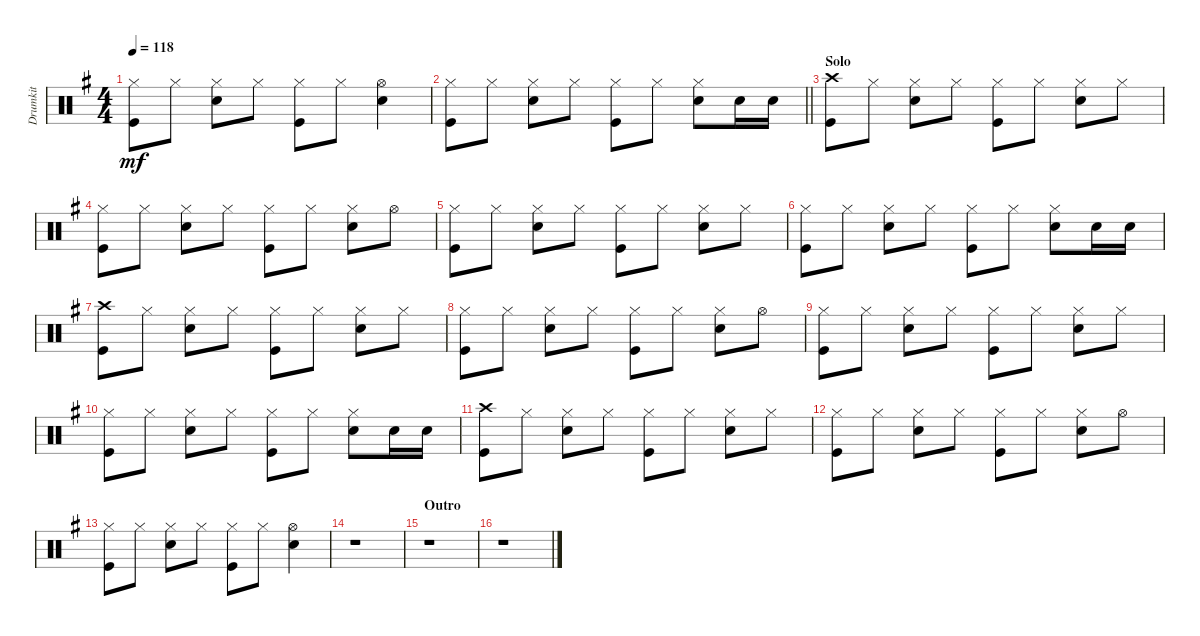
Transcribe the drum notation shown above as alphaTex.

\track ("Drumkit" "Drumkit") {instrument percussion}
\staff {score}
\articulation defaults
\ts (4 4)
\tempo 118
\clef neutral
\ks g
("Hi-Hat (closed)" "Kick (hit)").8{dy mf} "Hi-Hat (closed)".8 ("Hi-Hat (closed)" "Snare (hit) 2").8 "Hi-Hat (closed)".8 ("Hi-Hat (closed)" "Kick (hit)").8 "Hi-Hat (closed)".8 ("Hi-Hat (open)" "Snare (hit) 2").4 |
\barLineRight lightlight
("Hi-Hat (closed)" "Kick (hit)").8 "Hi-Hat (closed)".8 ("Hi-Hat (closed)" "Snare (hit) 2").8 "Hi-Hat (closed)".8 ("Hi-Hat (closed)" "Kick (hit)").8 "Hi-Hat (closed)".8 ("Hi-Hat (closed)" "Snare (hit) 2").8 "Snare (hit) 2".16 "Snare (hit) 2".16 |
\section ("" "Solo")
("Crash high (hit)" "Kick (hit)").8 "Hi-Hat (closed)".8 ("Hi-Hat (closed)" "Snare (hit) 2").8 "Hi-Hat (closed)".8 ("Hi-Hat (closed)" "Kick (hit)").8 "Hi-Hat (closed)".8 ("Hi-Hat (closed)" "Snare (hit) 2").8 "Hi-Hat (closed)".8 |
("Hi-Hat (closed)" "Kick (hit)").8 "Hi-Hat (closed)".8 ("Hi-Hat (closed)" "Snare (hit) 2").8 "Hi-Hat (closed)".8 ("Hi-Hat (closed)" "Kick (hit)").8 "Hi-Hat (closed)".8 ("Hi-Hat (closed)" "Snare (hit) 2").8 "Hi-Hat (open)".8 |
("Hi-Hat (closed)" "Kick (hit)").8 "Hi-Hat (closed)".8 ("Hi-Hat (closed)" "Snare (hit) 2").8 "Hi-Hat (closed)".8 ("Hi-Hat (closed)" "Kick (hit)").8 "Hi-Hat (closed)".8 ("Hi-Hat (closed)" "Snare (hit) 2").8 "Hi-Hat (closed)".8 |
("Hi-Hat (closed)" "Kick (hit)").8 "Hi-Hat (closed)".8 ("Hi-Hat (closed)" "Snare (hit) 2").8 "Hi-Hat (closed)".8 ("Hi-Hat (closed)" "Kick (hit)").8 "Hi-Hat (closed)".8 ("Hi-Hat (closed)" "Snare (hit) 2").8 "Snare (hit) 2".16 "Snare (hit) 2".16 |
("Crash high (hit)" "Kick (hit)").8 "Hi-Hat (closed)".8 ("Hi-Hat (closed)" "Snare (hit) 2").8 "Hi-Hat (closed)".8 ("Hi-Hat (closed)" "Kick (hit)").8 "Hi-Hat (closed)".8 ("Hi-Hat (closed)" "Snare (hit) 2").8 "Hi-Hat (closed)".8 |
("Hi-Hat (closed)" "Kick (hit)").8 "Hi-Hat (closed)".8 ("Hi-Hat (closed)" "Snare (hit) 2").8 "Hi-Hat (closed)".8 ("Hi-Hat (closed)" "Kick (hit)").8 "Hi-Hat (closed)".8 ("Hi-Hat (closed)" "Snare (hit) 2").8 "Hi-Hat (open)".8 |
("Hi-Hat (closed)" "Kick (hit)").8 "Hi-Hat (closed)".8 ("Hi-Hat (closed)" "Snare (hit) 2").8 "Hi-Hat (closed)".8 ("Hi-Hat (closed)" "Kick (hit)").8 "Hi-Hat (closed)".8 ("Hi-Hat (closed)" "Snare (hit) 2").8 "Hi-Hat (closed)".8 |
("Hi-Hat (closed)" "Kick (hit)").8 "Hi-Hat (closed)".8 ("Hi-Hat (closed)" "Snare (hit) 2").8 "Hi-Hat (closed)".8 ("Hi-Hat (closed)" "Kick (hit)").8 "Hi-Hat (closed)".8 ("Hi-Hat (closed)" "Snare (hit) 2").8 "Snare (hit) 2".16 "Snare (hit) 2".16 |
("Crash high (hit)" "Kick (hit)").8 "Hi-Hat (closed)".8 ("Hi-Hat (closed)" "Snare (hit) 2").8 "Hi-Hat (closed)".8 ("Hi-Hat (closed)" "Kick (hit)").8 "Hi-Hat (closed)".8 ("Hi-Hat (closed)" "Snare (hit) 2").8 "Hi-Hat (closed)".8 |
("Hi-Hat (closed)" "Kick (hit)").8 "Hi-Hat (closed)".8 ("Hi-Hat (closed)" "Snare (hit) 2").8 "Hi-Hat (closed)".8 ("Hi-Hat (closed)" "Kick (hit)").8 "Hi-Hat (closed)".8 ("Hi-Hat (closed)" "Snare (hit) 2").8 "Hi-Hat (open)".8 |
("Hi-Hat (closed)" "Kick (hit)").8 "Hi-Hat (closed)".8 ("Hi-Hat (closed)" "Snare (hit) 2").8 "Hi-Hat (closed)".8 ("Hi-Hat (closed)" "Kick (hit)").8 "Hi-Hat (closed)".8 ("Hi-Hat (open)" "Snare (hit) 2").4 |
r.1 |
\section ("" "Outro")
r.1 |
r.1
